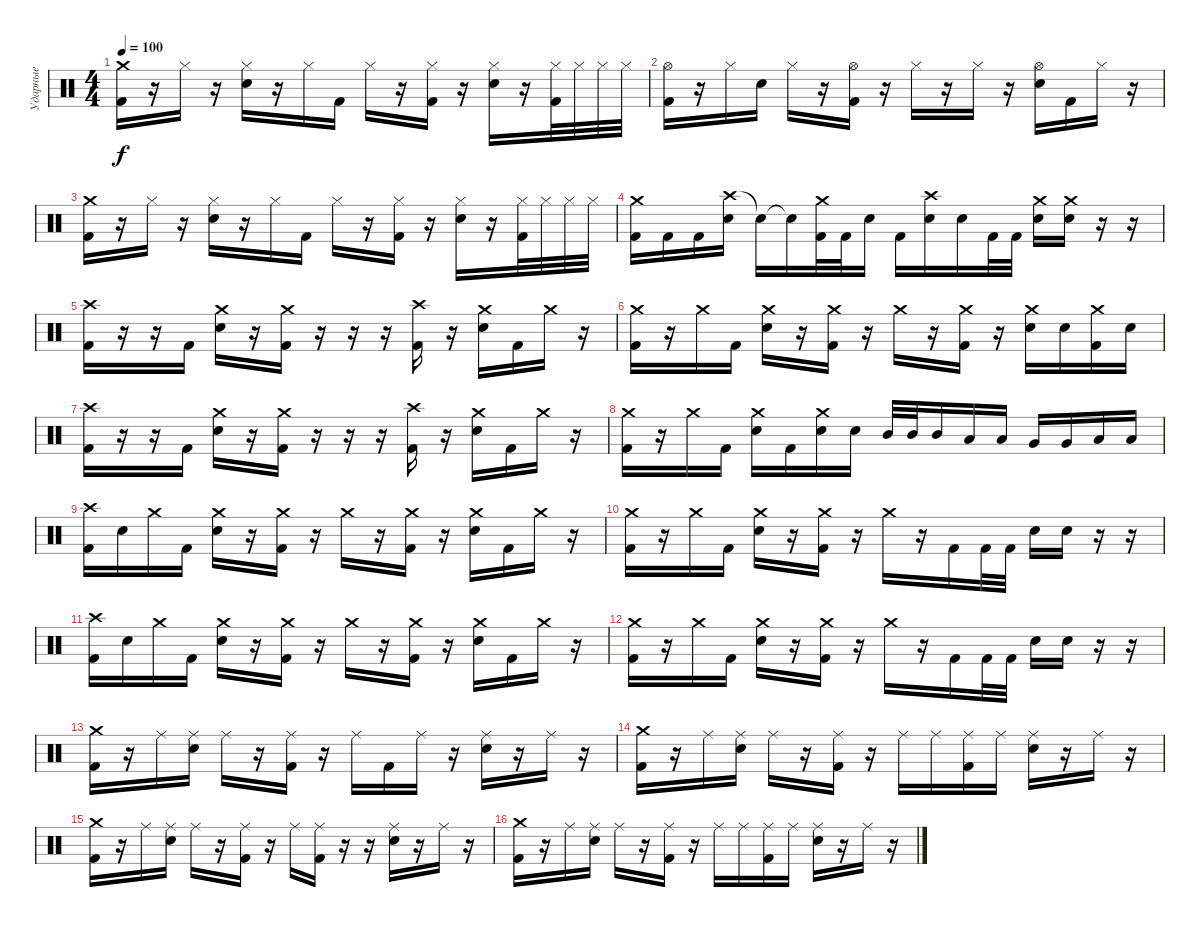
\track ("Ударные" "Ударные") {instrument percussion}
\staff {score}
\articulation defaults
\ts (4 4)
\tempo 100
\clef neutral
\ks c
("Crash medium (hit)" "Kick (hit) 2").16{dy f} r.16 "Hi-Hat (closed)".16 r.16 ("Hi-Hat (closed)" "Electric Snare (hit)").16 r.16 "Hi-Hat (closed)".16 "Kick (hit) 2".16 "Hi-Hat (closed)".16 r.16 ("Hi-Hat (closed)" "Kick (hit) 2").16 r.16 ("Hi-Hat (closed)" "Electric Snare (hit)").16 r.16 ("Hi-Hat (closed)" "Kick (hit) 2").32 "Hi-Hat (closed)".32 "Hi-Hat (closed)".32 "Hi-Hat (closed)".32 |
("Hi-Hat (open)" "Kick (hit) 2").16 r.16 "Hi-Hat (closed)".16 "Electric Snare (hit)".16 "Hi-Hat (closed)".16 r.16 ("Hi-Hat (open)" "Kick (hit) 2").16 r.16 "Hi-Hat (closed)".16 r.16 "Hi-Hat (closed)".16 r.16 ("Hi-Hat (open)" "Electric Snare (hit)").16 "Kick (hit) 2".16 "Hi-Hat (closed)".16 r.16 |
("Crash medium (hit)" "Kick (hit) 2").16 r.16 "Hi-Hat (closed)".16 r.16 ("Hi-Hat (closed)" "Electric Snare (hit)").16 r.16 "Hi-Hat (closed)".16 "Kick (hit) 2".16 "Hi-Hat (closed)".16 r.16 ("Hi-Hat (closed)" "Kick (hit) 2").16 r.16 ("Hi-Hat (closed)" "Electric Snare (hit)").16 r.16 ("Hi-Hat (closed)" "Kick (hit) 2").32 "Hi-Hat (closed)".32 "Hi-Hat (closed)".32 "Hi-Hat (closed)".32 |
("Crash medium (hit)" "Kick (hit) 2").16 "Kick (hit) 2".16 "Kick (hit) 2".16 ("Crash high (hit)" "Electric Snare (hit)").16 "Snare (hit)"{t}.16 "Snare (hit)"{t}.16 ("Crash medium (hit)" "Kick (hit) 2").32 "Kick (hit) 2".32 "Electric Snare (hit)".16 "Kick (hit) 2".16 ("Crash high (hit)" "Electric Snare (hit)").16 "Electric Snare (hit)".16 "Kick (hit) 2".32 "Kick (hit) 2".32 ("Crash medium (hit)" "Electric Snare (hit)").16 ("Crash medium (hit)" "Electric Snare (hit)").16 r.16 r.16 |
("Crash high (hit)" "Kick (hit) 2").16 r.16 r.16 "Kick (hit) 2".16 ("Crash medium (hit)" "Electric Snare (hit)").16 r.16 ("Crash medium (hit)" "Kick (hit) 2").16 r.16 r.16 r.16 ("Crash high (hit)" "Kick (hit) 2").16 r.16 ("Crash medium (hit)" "Electric Snare (hit)").16 "Kick (hit) 2".16 "Crash medium (hit)".16 r.16 |
("Crash medium (hit)" "Kick (hit) 2").16 r.16 "Crash medium (hit)".16 "Kick (hit) 2".16 ("Crash medium (hit)" "Electric Snare (hit)").16 r.16 ("Crash medium (hit)" "Kick (hit) 2").16 r.16 "Crash medium (hit)".16 r.16 ("Crash medium (hit)" "Kick (hit) 2").16 r.16 ("Crash medium (hit)" "Electric Snare (hit)").16 "Electric Snare (hit)".16 ("Crash medium (hit)" "Kick (hit) 2").16 "Electric Snare (hit)".16 |
("Crash high (hit)" "Kick (hit) 2").16 r.16 r.16 "Kick (hit) 2".16 ("Crash medium (hit)" "Electric Snare (hit)").16 r.16 ("Crash medium (hit)" "Kick (hit) 2").16 r.16 r.16 r.16 ("Crash high (hit)" "Kick (hit) 2").16 r.16 ("Crash medium (hit)" "Electric Snare (hit)").16 "Kick (hit) 2".16 "Crash medium (hit)".16 r.16 |
("Crash medium (hit)" "Kick (hit) 2").16 r.16 "Crash medium (hit)".16 "Kick (hit) 2".16 ("Crash medium (hit)" "Electric Snare (hit)").16 "Kick (hit) 2".16 ("Crash medium (hit)" "Electric Snare (hit)").16 "Electric Snare (hit)".16 "Mid Tom (hit)".32 "Mid Tom (hit)".32 "Mid Tom (hit)".16 "Low Tom (hit)".16 "Low Tom (hit)".16 "Very Low Tom (hit)".16 "Very Low Tom (hit)".16 "Low Floor Tom (hit)".16 "Low Floor Tom (hit)".16 |
("Crash high (hit)" "Kick (hit) 2").16 "Electric Snare (hit)".16 "Crash medium (hit)".16 "Kick (hit) 2".16 ("Crash medium (hit)" "Electric Snare (hit)").16 r.16 ("Crash medium (hit)" "Kick (hit) 2").16 r.16 "Crash medium (hit)".16 r.16 ("Crash medium (hit)" "Kick (hit) 2").16 r.16 ("Crash medium (hit)" "Electric Snare (hit)").16 "Kick (hit) 2".16 "Crash medium (hit)".16 r.16 |
("Crash medium (hit)" "Kick (hit) 2").16 r.16 "Crash medium (hit)".16 "Kick (hit) 2".16 ("Crash medium (hit)" "Electric Snare (hit)").16 r.16 ("Crash medium (hit)" "Kick (hit) 2").16 r.16 "Crash medium (hit)".16 r.16 "Kick (hit) 2".16 "Kick (hit) 2".32 "Kick (hit) 2".32 "Electric Snare (hit)".16 "Electric Snare (hit)".16 r.16 r.16 |
("Crash high (hit)" "Kick (hit) 2").16 "Electric Snare (hit)".16 "Crash medium (hit)".16 "Kick (hit) 2".16 ("Crash medium (hit)" "Electric Snare (hit)").16 r.16 ("Crash medium (hit)" "Kick (hit) 2").16 r.16 "Crash medium (hit)".16 r.16 ("Crash medium (hit)" "Kick (hit) 2").16 r.16 ("Crash medium (hit)" "Electric Snare (hit)").16 "Kick (hit) 2".16 "Crash medium (hit)".16 r.16 |
("Crash medium (hit)" "Kick (hit) 2").16 r.16 "Crash medium (hit)".16 "Kick (hit) 2".16 ("Crash medium (hit)" "Electric Snare (hit)").16 r.16 ("Crash medium (hit)" "Kick (hit) 2").16 r.16 "Crash medium (hit)".16 r.16 "Kick (hit) 2".16 "Kick (hit) 2".32 "Kick (hit) 2".32 "Electric Snare (hit)".16 "Electric Snare (hit)".16 r.16 r.16 |
("Crash medium (hit)" "Kick (hit) 2").16 r.16 "Ride (middle)".16 ("Ride (middle)" "Electric Snare (hit)").16 "Ride (middle)".16 r.16 ("Ride (middle)" "Kick (hit) 2").16 r.16 "Ride (middle)".16 "Kick (hit) 2".16 "Ride (middle)".16 r.16 ("Ride (middle)" "Electric Snare (hit)").16 r.16 "Ride (middle)".16 r.16 |
("Crash medium (hit)" "Kick (hit) 2").16 r.16 "Ride (middle)".16 ("Ride (middle)" "Electric Snare (hit)").16 "Ride (middle)".16 r.16 ("Ride (middle)" "Kick (hit) 2").16 r.16 "Ride (middle)".16 "Ride (middle)".16 ("Ride (middle)" "Kick (hit) 2").16 "Ride (middle)".16 ("Ride (middle)" "Electric Snare (hit)").16 r.16 "Ride (middle)".16 r.16 |
("Crash medium (hit)" "Kick (hit) 2").16 r.16 "Ride (middle)".16 ("Ride (middle)" "Electric Snare (hit)").16 "Ride (middle)".16 r.16 ("Ride (middle)" "Kick (hit) 2").16 r.16 "Ride (middle)".16 ("Ride (middle)" "Kick (hit) 2").16 r.16 r.16 ("Ride (middle)" "Electric Snare (hit)").16 r.16 "Ride (middle)".16 r.16 |
("Crash medium (hit)" "Kick (hit) 2").16 r.16 "Ride (middle)".16 ("Ride (middle)" "Electric Snare (hit)").16 "Ride (middle)".16 r.16 ("Ride (middle)" "Kick (hit) 2").16 r.16 "Ride (middle)".16 "Ride (middle)".16 ("Ride (middle)" "Kick (hit) 2").16 "Ride (middle)".16 ("Ride (middle)" "Electric Snare (hit)").16 r.16 "Ride (middle)".16 r.16
